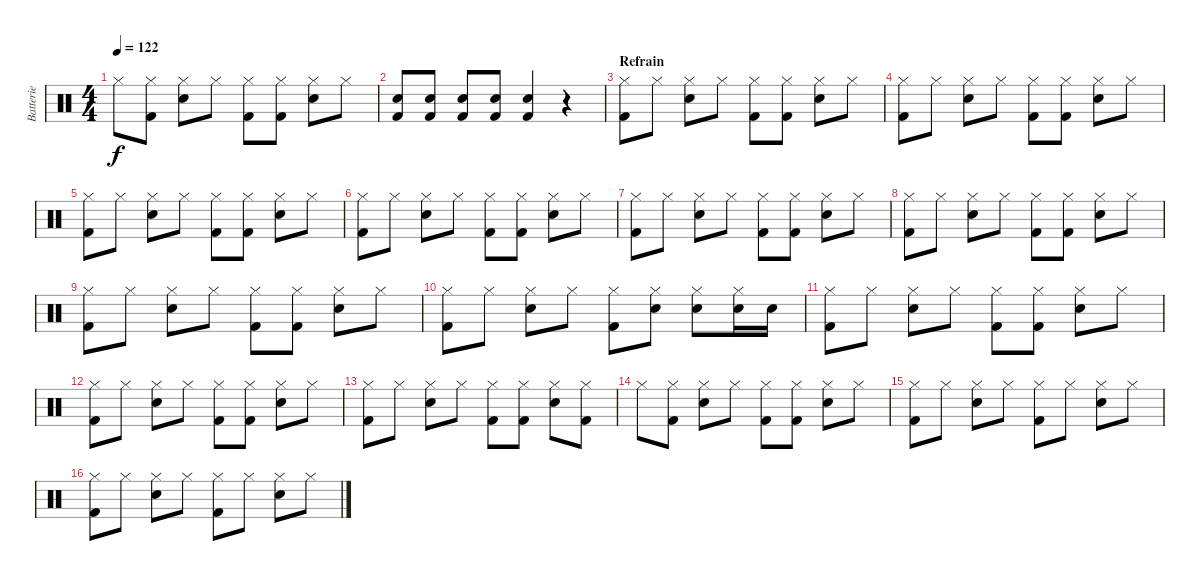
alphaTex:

\track ("Batterie" "Batterie") {instrument percussion}
\staff {score}
\articulation defaults
\ts (4 4)
\tempo 122
\clef neutral
\ks c "Hi-Hat (closed)".8{dy f}
("Hi-Hat (closed)" "Kick (hit) 2").8 ("Hi-Hat (closed)" "Snare (hit) 2").8 "Hi-Hat (closed)".8 ("Hi-Hat (closed)" "Kick (hit) 2").8 ("Hi-Hat (closed)" "Kick (hit) 2").8 ("Hi-Hat (closed)" "Snare (hit) 2").8 "Hi-Hat (closed)".8 |
("Snare (hit) 2" "Kick (hit) 2").8 ("Snare (hit) 2" "Kick (hit) 2").8 ("Snare (hit) 2" "Kick (hit) 2").8 ("Snare (hit) 2" "Kick (hit) 2").8 ("Snare (hit) 2" "Kick (hit) 2").4 r.4 |
\section ("" "Refrain")
("Hi-Hat (closed)" "Kick (hit) 2").8 "Hi-Hat (closed)".8 ("Hi-Hat (closed)" "Snare (hit) 2").8 "Hi-Hat (closed)".8 ("Hi-Hat (closed)" "Kick (hit) 2").8 ("Hi-Hat (closed)" "Kick (hit) 2").8 ("Hi-Hat (closed)" "Snare (hit) 2").8 "Hi-Hat (closed)".8 |
("Hi-Hat (closed)" "Kick (hit) 2").8 "Hi-Hat (closed)".8 ("Hi-Hat (closed)" "Snare (hit) 2").8 "Hi-Hat (closed)".8 ("Hi-Hat (closed)" "Kick (hit) 2").8 ("Hi-Hat (closed)" "Kick (hit) 2").8 ("Hi-Hat (closed)" "Snare (hit) 2").8 "Hi-Hat (closed)".8 |
("Hi-Hat (closed)" "Kick (hit) 2").8 "Hi-Hat (closed)".8 ("Hi-Hat (closed)" "Snare (hit) 2").8 "Hi-Hat (closed)".8 ("Hi-Hat (closed)" "Kick (hit) 2").8 ("Hi-Hat (closed)" "Kick (hit) 2").8 ("Hi-Hat (closed)" "Snare (hit) 2").8 "Hi-Hat (closed)".8 |
("Hi-Hat (closed)" "Kick (hit) 2").8 "Hi-Hat (closed)".8 ("Hi-Hat (closed)" "Snare (hit) 2").8 "Hi-Hat (closed)".8 ("Hi-Hat (closed)" "Kick (hit) 2").8 ("Hi-Hat (closed)" "Kick (hit) 2").8 ("Hi-Hat (closed)" "Snare (hit) 2").8 "Hi-Hat (closed)".8 |
("Hi-Hat (closed)" "Kick (hit) 2").8 "Hi-Hat (closed)".8 ("Hi-Hat (closed)" "Snare (hit) 2").8 "Hi-Hat (closed)".8 ("Hi-Hat (closed)" "Kick (hit) 2").8 ("Hi-Hat (closed)" "Kick (hit) 2").8 ("Hi-Hat (closed)" "Snare (hit) 2").8 "Hi-Hat (closed)".8 |
("Hi-Hat (closed)" "Kick (hit) 2").8 "Hi-Hat (closed)".8 ("Hi-Hat (closed)" "Snare (hit) 2").8 "Hi-Hat (closed)".8 ("Hi-Hat (closed)" "Kick (hit) 2").8 ("Hi-Hat (closed)" "Kick (hit) 2").8 ("Hi-Hat (closed)" "Snare (hit) 2").8 "Hi-Hat (closed)".8 |
("Hi-Hat (closed)" "Kick (hit) 2").8 "Hi-Hat (closed)".8 ("Hi-Hat (closed)" "Snare (hit) 2").8 "Hi-Hat (closed)".8 ("Hi-Hat (closed)" "Kick (hit) 2").8 ("Hi-Hat (closed)" "Kick (hit) 2").8 ("Hi-Hat (closed)" "Snare (hit) 2").8 "Hi-Hat (closed)".8 |
("Hi-Hat (closed)" "Kick (hit) 2").8 "Hi-Hat (closed)".8 ("Hi-Hat (closed)" "Snare (hit) 2").8 "Hi-Hat (closed)".8 ("Hi-Hat (closed)" "Kick (hit) 2").8 ("Hi-Hat (closed)" "Snare (hit) 2").8 ("Hi-Hat (closed)" "Snare (hit) 2").8 ("Hi-Hat (closed)" "Snare (hit) 2").16 "Snare (hit) 2".16 |
\section ("" "")
("Hi-Hat (closed)" "Kick (hit) 2").8 "Hi-Hat (closed)".8 ("Hi-Hat (closed)" "Snare (hit) 2").8 "Hi-Hat (closed)".8 ("Hi-Hat (closed)" "Kick (hit) 2").8 ("Hi-Hat (closed)" "Kick (hit) 2").8 ("Hi-Hat (closed)" "Snare (hit) 2").8 "Hi-Hat (closed)".8 |
("Hi-Hat (closed)" "Kick (hit) 2").8 "Hi-Hat (closed)".8 ("Hi-Hat (closed)" "Snare (hit) 2").8 "Hi-Hat (closed)".8 ("Hi-Hat (closed)" "Kick (hit) 2").8 ("Hi-Hat (closed)" "Kick (hit) 2").8 ("Hi-Hat (closed)" "Snare (hit) 2").8 "Hi-Hat (closed)".8 |
("Hi-Hat (closed)" "Kick (hit) 2").8 "Hi-Hat (closed)".8 ("Hi-Hat (closed)" "Snare (hit) 2").8 "Hi-Hat (closed)".8 ("Hi-Hat (closed)" "Kick (hit) 2").8 ("Hi-Hat (closed)" "Kick (hit) 2").8 ("Hi-Hat (closed)" "Snare (hit) 2").8 ("Hi-Hat (closed)" "Kick (hit) 2").8 |
"Hi-Hat (closed)".8 ("Hi-Hat (closed)" "Kick (hit) 2").8 ("Hi-Hat (closed)" "Snare (hit) 2").8 "Hi-Hat (closed)".8 ("Hi-Hat (closed)" "Kick (hit) 2").8 ("Hi-Hat (closed)" "Kick (hit) 2").8 ("Hi-Hat (closed)" "Snare (hit) 2").8 "Hi-Hat (closed)".8 |
\section ("" "")
("Hi-Hat (closed)" "Kick (hit) 2").8 "Hi-Hat (closed)".8 ("Hi-Hat (closed)" "Snare (hit) 2").8 "Hi-Hat (closed)".8 ("Hi-Hat (closed)" "Kick (hit) 2").8 "Hi-Hat (closed)".8 ("Hi-Hat (closed)" "Snare (hit) 2").8 "Hi-Hat (closed)".8 |
("Hi-Hat (closed)" "Kick (hit) 2").8 "Hi-Hat (closed)".8 ("Hi-Hat (closed)" "Snare (hit) 2").8 "Hi-Hat (closed)".8 ("Hi-Hat (closed)" "Kick (hit) 2").8 "Hi-Hat (closed)".8 ("Hi-Hat (closed)" "Snare (hit) 2").8 "Hi-Hat (closed)".8
